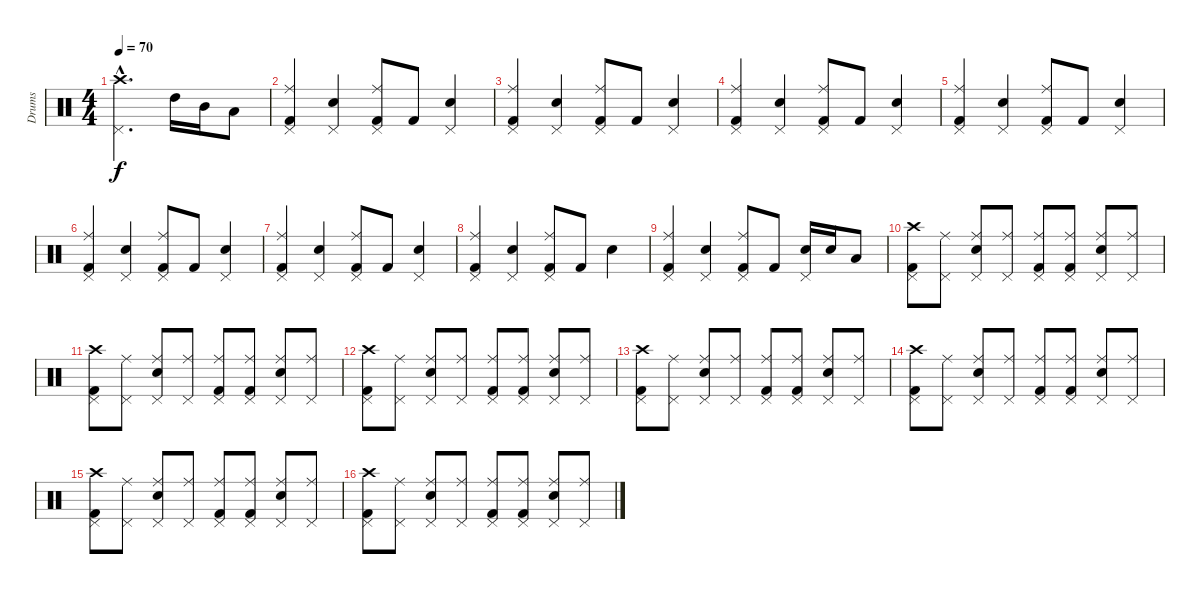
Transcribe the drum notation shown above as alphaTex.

\track ("Drums" "Drums") {instrument percussion}
\staff {score}
\articulation defaults
\ts (4 4)
\tempo 70
\clef neutral
\ks c
("Crash high (hit)"{hac} "Pedal Hi-Hat (hit)"{hac}).2{d dy f} "High Tom (hit)".16 "Mid Tom (hit)".16 "Low Tom (hit)".8 |
("Ride (middle)" "Kick (hit) 2" "Pedal Hi-Hat (hit)").4 ("Electric Snare (hit)" "Pedal Hi-Hat (hit)").4 ("Ride (middle)" "Kick (hit) 2" "Pedal Hi-Hat (hit)").8 "Kick (hit) 2".8 ("Electric Snare (hit)" "Pedal Hi-Hat (hit)").4 |
("Ride (middle)" "Kick (hit) 2" "Pedal Hi-Hat (hit)").4 ("Electric Snare (hit)" "Pedal Hi-Hat (hit)").4 ("Ride (middle)" "Kick (hit) 2" "Pedal Hi-Hat (hit)").8 "Kick (hit) 2".8 ("Electric Snare (hit)" "Pedal Hi-Hat (hit)").4 |
("Ride (middle)" "Kick (hit) 2" "Pedal Hi-Hat (hit)").4 ("Electric Snare (hit)" "Pedal Hi-Hat (hit)").4 ("Ride (middle)" "Kick (hit) 2" "Pedal Hi-Hat (hit)").8 "Kick (hit) 2".8 ("Electric Snare (hit)" "Pedal Hi-Hat (hit)").4 |
("Ride (middle)" "Kick (hit) 2" "Pedal Hi-Hat (hit)").4 ("Electric Snare (hit)" "Pedal Hi-Hat (hit)").4 ("Ride (middle)" "Kick (hit) 2" "Pedal Hi-Hat (hit)").8 "Kick (hit) 2".8 ("Electric Snare (hit)" "Pedal Hi-Hat (hit)").4 |
("Ride (middle)" "Kick (hit) 2" "Pedal Hi-Hat (hit)").4 ("Electric Snare (hit)" "Pedal Hi-Hat (hit)").4 ("Ride (middle)" "Kick (hit) 2" "Pedal Hi-Hat (hit)").8 "Kick (hit) 2".8 ("Electric Snare (hit)" "Pedal Hi-Hat (hit)").4 |
("Ride (middle)" "Kick (hit) 2" "Pedal Hi-Hat (hit)").4 ("Electric Snare (hit)" "Pedal Hi-Hat (hit)").4 ("Ride (middle)" "Kick (hit) 2" "Pedal Hi-Hat (hit)").8 "Kick (hit) 2".8 ("Electric Snare (hit)" "Pedal Hi-Hat (hit)").4 |
("Ride (middle)" "Kick (hit) 2" "Pedal Hi-Hat (hit)").4 ("Electric Snare (hit)" "Pedal Hi-Hat (hit)").4 ("Ride (middle)" "Kick (hit) 2" "Pedal Hi-Hat (hit)").8 "Kick (hit) 2".8 "Electric Snare (hit)".4 |
("Ride (middle)" "Kick (hit) 2" "Pedal Hi-Hat (hit)").4 ("Electric Snare (hit)" "Pedal Hi-Hat (hit)").4 ("Ride (middle)" "Kick (hit) 2" "Pedal Hi-Hat (hit)").8 "Kick (hit) 2".8 ("Electric Snare (hit)" "Pedal Hi-Hat (hit)").16 "Electric Snare (hit)".16 "Low Tom (hit)".8 |
("Crash high (hit)" "Kick (hit) 2" "Pedal Hi-Hat (hit)").8 ("Ride (middle)" "Pedal Hi-Hat (hit)").8 ("Ride (middle)" "Electric Snare (hit)" "Pedal Hi-Hat (hit)").8 ("Ride (middle)" "Pedal Hi-Hat (hit)").8 ("Ride (middle)" "Kick (hit) 2" "Pedal Hi-Hat (hit)").8 ("Ride (middle)" "Kick (hit) 2" "Pedal Hi-Hat (hit)").8 ("Ride (middle)" "Electric Snare (hit)" "Pedal Hi-Hat (hit)").8 ("Ride (middle)" "Pedal Hi-Hat (hit)").8 |
("Crash high (hit)" "Kick (hit) 2" "Pedal Hi-Hat (hit)").8 ("Ride (middle)" "Pedal Hi-Hat (hit)").8 ("Ride (middle)" "Electric Snare (hit)" "Pedal Hi-Hat (hit)").8 ("Ride (middle)" "Pedal Hi-Hat (hit)").8 ("Ride (middle)" "Kick (hit) 2" "Pedal Hi-Hat (hit)").8 ("Ride (middle)" "Kick (hit) 2" "Pedal Hi-Hat (hit)").8 ("Ride (middle)" "Electric Snare (hit)" "Pedal Hi-Hat (hit)").8 ("Ride (middle)" "Pedal Hi-Hat (hit)").8 |
("Crash high (hit)" "Kick (hit) 2" "Pedal Hi-Hat (hit)").8 ("Ride (middle)" "Pedal Hi-Hat (hit)").8 ("Ride (middle)" "Electric Snare (hit)" "Pedal Hi-Hat (hit)").8 ("Ride (middle)" "Pedal Hi-Hat (hit)").8 ("Ride (middle)" "Kick (hit) 2" "Pedal Hi-Hat (hit)").8 ("Ride (middle)" "Kick (hit) 2" "Pedal Hi-Hat (hit)").8 ("Ride (middle)" "Electric Snare (hit)" "Pedal Hi-Hat (hit)").8 ("Ride (middle)" "Pedal Hi-Hat (hit)").8 |
("Crash high (hit)" "Kick (hit) 2" "Pedal Hi-Hat (hit)").8 ("Ride (middle)" "Pedal Hi-Hat (hit)").8 ("Ride (middle)" "Electric Snare (hit)" "Pedal Hi-Hat (hit)").8 ("Ride (middle)" "Pedal Hi-Hat (hit)").8 ("Ride (middle)" "Kick (hit) 2" "Pedal Hi-Hat (hit)").8 ("Ride (middle)" "Kick (hit) 2" "Pedal Hi-Hat (hit)").8 ("Ride (middle)" "Electric Snare (hit)" "Pedal Hi-Hat (hit)").8 ("Ride (middle)" "Pedal Hi-Hat (hit)").8 |
("Crash high (hit)" "Kick (hit) 2" "Pedal Hi-Hat (hit)").8 ("Ride (middle)" "Pedal Hi-Hat (hit)").8 ("Ride (middle)" "Electric Snare (hit)" "Pedal Hi-Hat (hit)").8 ("Ride (middle)" "Pedal Hi-Hat (hit)").8 ("Ride (middle)" "Kick (hit) 2" "Pedal Hi-Hat (hit)").8 ("Ride (middle)" "Kick (hit) 2" "Pedal Hi-Hat (hit)").8 ("Ride (middle)" "Electric Snare (hit)" "Pedal Hi-Hat (hit)").8 ("Ride (middle)" "Pedal Hi-Hat (hit)").8 |
("Crash high (hit)" "Kick (hit) 2" "Pedal Hi-Hat (hit)").8 ("Ride (middle)" "Pedal Hi-Hat (hit)").8 ("Ride (middle)" "Electric Snare (hit)" "Pedal Hi-Hat (hit)").8 ("Ride (middle)" "Pedal Hi-Hat (hit)").8 ("Ride (middle)" "Kick (hit) 2" "Pedal Hi-Hat (hit)").8 ("Ride (middle)" "Kick (hit) 2" "Pedal Hi-Hat (hit)").8 ("Ride (middle)" "Electric Snare (hit)" "Pedal Hi-Hat (hit)").8 ("Ride (middle)" "Pedal Hi-Hat (hit)").8 |
("Crash high (hit)" "Kick (hit) 2" "Pedal Hi-Hat (hit)").8 ("Ride (middle)" "Pedal Hi-Hat (hit)").8 ("Ride (middle)" "Electric Snare (hit)" "Pedal Hi-Hat (hit)").8 ("Ride (middle)" "Pedal Hi-Hat (hit)").8 ("Ride (middle)" "Kick (hit) 2" "Pedal Hi-Hat (hit)").8 ("Ride (middle)" "Kick (hit) 2" "Pedal Hi-Hat (hit)").8 ("Ride (middle)" "Electric Snare (hit)" "Pedal Hi-Hat (hit)").8 ("Ride (middle)" "Pedal Hi-Hat (hit)").8
